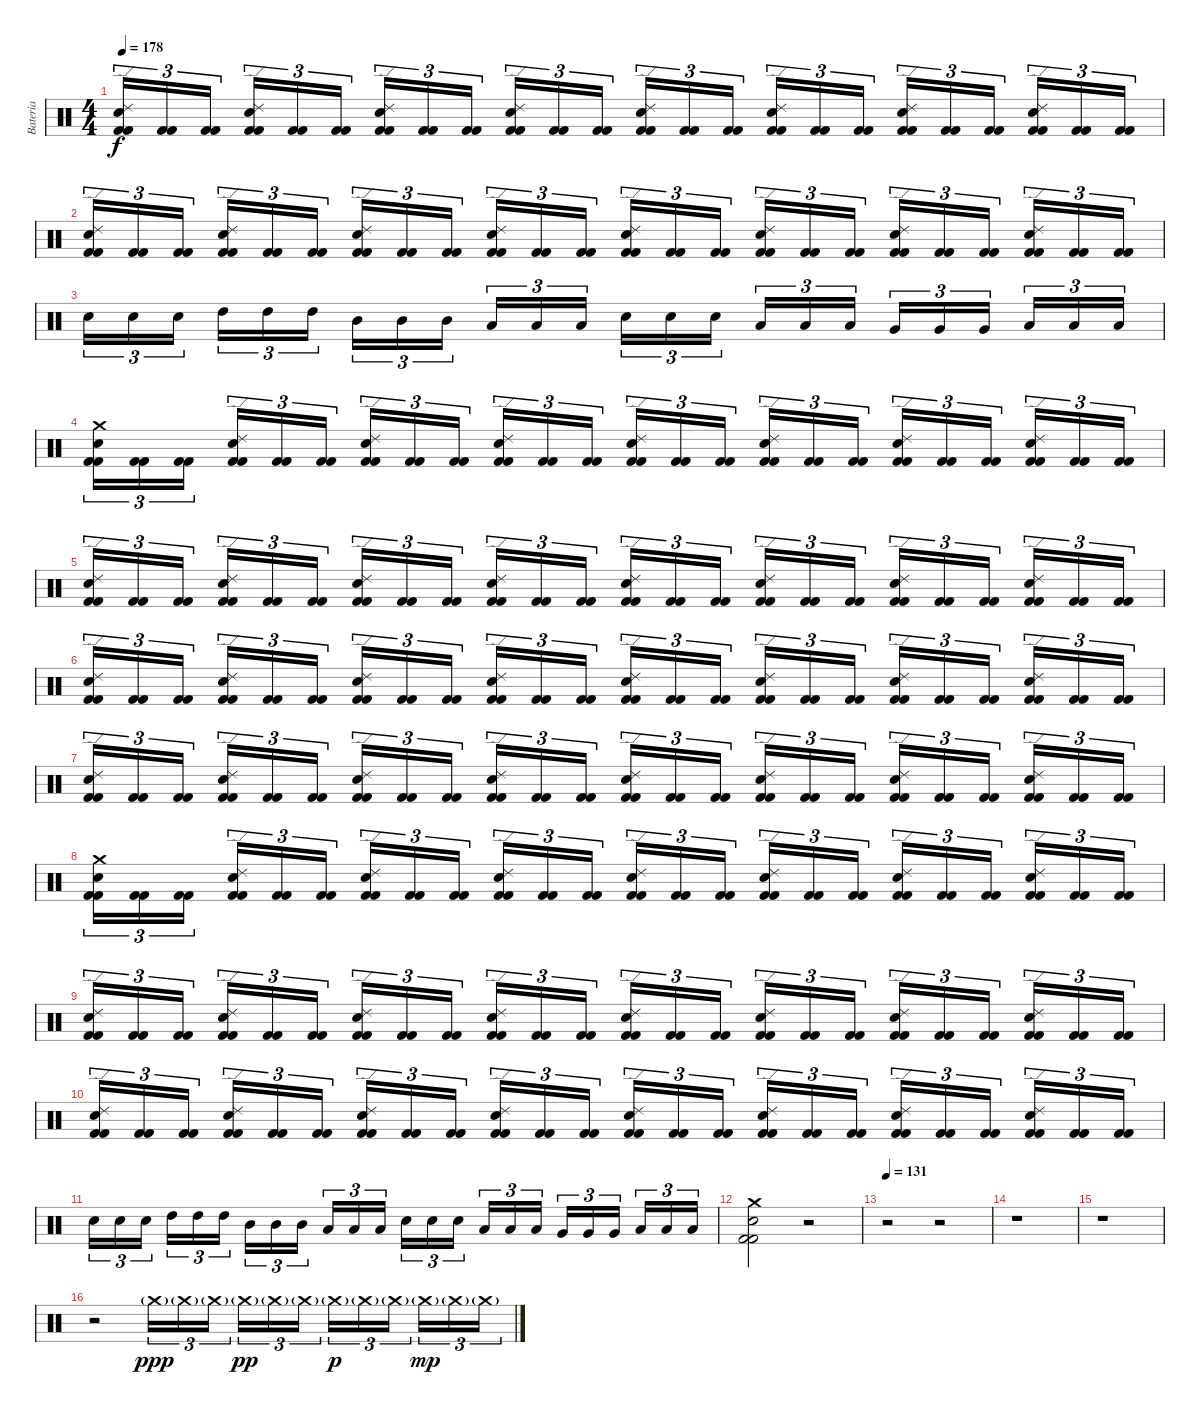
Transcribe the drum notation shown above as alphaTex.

\track ("Bateria" "Bateria") {instrument percussion}
\staff {score}
\articulation defaults
\ts (4 4)
\tempo 178
\clef neutral
\ks c
("Kick (hit) 2" "Kick (hit) 2" "Snare (hit) 2" "Ride (edge) 2").16{tu (3 2) dy f} ("Kick (hit) 2" "Kick (hit) 2").16{tu (3 2)} ("Kick (hit) 2" "Kick (hit) 2").16{tu (3 2)} ("Kick (hit) 2" "Kick (hit) 2" "Snare (hit) 2" "Ride (edge) 2").16{tu (3 2)} ("Kick (hit) 2" "Kick (hit) 2").16{tu (3 2)} ("Kick (hit) 2" "Kick (hit) 2").16{tu (3 2)} ("Kick (hit) 2" "Kick (hit) 2" "Snare (hit) 2" "Ride (edge) 2").16{tu (3 2)} ("Kick (hit) 2" "Kick (hit) 2").16{tu (3 2)} ("Kick (hit) 2" "Kick (hit) 2").16{tu (3 2)} ("Kick (hit) 2" "Kick (hit) 2" "Snare (hit) 2" "Ride (edge) 2").16{tu (3 2)} ("Kick (hit) 2" "Kick (hit) 2").16{tu (3 2)} ("Kick (hit) 2" "Kick (hit) 2").16{tu (3 2)} ("Kick (hit) 2" "Kick (hit) 2" "Snare (hit) 2" "Ride (edge) 2").16{tu (3 2)} ("Kick (hit) 2" "Kick (hit) 2").16{tu (3 2)} ("Kick (hit) 2" "Kick (hit) 2").16{tu (3 2)} ("Kick (hit) 2" "Kick (hit) 2" "Snare (hit) 2" "Ride (edge) 2").16{tu (3 2)} ("Kick (hit) 2" "Kick (hit) 2").16{tu (3 2)} ("Kick (hit) 2" "Kick (hit) 2").16{tu (3 2)} ("Kick (hit) 2" "Kick (hit) 2" "Snare (hit) 2" "Ride (edge) 2").16{tu (3 2)} ("Kick (hit) 2" "Kick (hit) 2").16{tu (3 2)} ("Kick (hit) 2" "Kick (hit) 2").16{tu (3 2)} ("Kick (hit) 2" "Kick (hit) 2" "Snare (hit) 2" "Ride (edge) 2").16{tu (3 2)} ("Kick (hit) 2" "Kick (hit) 2").16{tu (3 2)} ("Kick (hit) 2" "Kick (hit) 2").16{tu (3 2)} |
("Kick (hit) 2" "Kick (hit) 2" "Snare (hit) 2" "Ride (edge) 2").16{tu (3 2)} ("Kick (hit) 2" "Kick (hit) 2").16{tu (3 2)} ("Kick (hit) 2" "Kick (hit) 2").16{tu (3 2)} ("Kick (hit) 2" "Kick (hit) 2" "Snare (hit) 2" "Ride (edge) 2").16{tu (3 2)} ("Kick (hit) 2" "Kick (hit) 2").16{tu (3 2)} ("Kick (hit) 2" "Kick (hit) 2").16{tu (3 2)} ("Kick (hit) 2" "Kick (hit) 2" "Snare (hit) 2" "Ride (edge) 2").16{tu (3 2)} ("Kick (hit) 2" "Kick (hit) 2").16{tu (3 2)} ("Kick (hit) 2" "Kick (hit) 2").16{tu (3 2)} ("Kick (hit) 2" "Kick (hit) 2" "Snare (hit) 2" "Ride (edge) 2").16{tu (3 2)} ("Kick (hit) 2" "Kick (hit) 2").16{tu (3 2)} ("Kick (hit) 2" "Kick (hit) 2").16{tu (3 2)} ("Kick (hit) 2" "Kick (hit) 2" "Snare (hit) 2" "Ride (edge) 2").16{tu (3 2)} ("Kick (hit) 2" "Kick (hit) 2").16{tu (3 2)} ("Kick (hit) 2" "Kick (hit) 2").16{tu (3 2)} ("Kick (hit) 2" "Kick (hit) 2" "Snare (hit) 2" "Ride (edge) 2").16{tu (3 2)} ("Kick (hit) 2" "Kick (hit) 2").16{tu (3 2)} ("Kick (hit) 2" "Kick (hit) 2").16{tu (3 2)} ("Kick (hit) 2" "Kick (hit) 2" "Snare (hit) 2" "Ride (edge) 2").16{tu (3 2)} ("Kick (hit) 2" "Kick (hit) 2").16{tu (3 2)} ("Kick (hit) 2" "Kick (hit) 2").16{tu (3 2)} ("Kick (hit) 2" "Kick (hit) 2" "Snare (hit) 2" "Ride (edge) 2").16{tu (3 2)} ("Kick (hit) 2" "Kick (hit) 2").16{tu (3 2)} ("Kick (hit) 2" "Kick (hit) 2").16{tu (3 2)} |
"Snare (hit) 2".16{tu (3 2)} "Snare (hit) 2".16{tu (3 2)} "Snare (hit) 2".16{tu (3 2)} "High Tom (hit)".16{tu (3 2)} "High Tom (hit)".16{tu (3 2)} "High Tom (hit)".16{tu (3 2)} "Mid Tom (hit)".16{tu (3 2)} "Mid Tom (hit)".16{tu (3 2)} "Mid Tom (hit)".16{tu (3 2)} "Low Tom (hit)".16{tu (3 2)} "Low Tom (hit)".16{tu (3 2)} "Low Tom (hit)".16{tu (3 2)} "Snare (hit) 2".16{tu (3 2)} "Snare (hit) 2".16{tu (3 2)} "Snare (hit) 2".16{tu (3 2)} "Low Tom (hit)".16{tu (3 2)} "Low Tom (hit)".16{tu (3 2)} "Low Tom (hit)".16{tu (3 2)} "Very Low Tom (hit)".16{tu (3 2)} "Very Low Tom (hit)".16{tu (3 2)} "Very Low Tom (hit)".16{tu (3 2)} "Low Floor Tom (hit)".16{tu (3 2)} "Low Floor Tom (hit)".16{tu (3 2)} "Low Floor Tom (hit)".16{tu (3 2)} |
("Kick (hit) 2" "Kick (hit) 2" "Snare (hit) 2" "Crash medium (hit)").16{tu (3 2)} ("Kick (hit) 2" "Kick (hit) 2").16{tu (3 2)} ("Kick (hit) 2" "Kick (hit) 2").16{tu (3 2)} ("Kick (hit) 2" "Kick (hit) 2" "Snare (hit) 2" "Ride (edge) 2").16{tu (3 2)} ("Kick (hit) 2" "Kick (hit) 2").16{tu (3 2)} ("Kick (hit) 2" "Kick (hit) 2").16{tu (3 2)} ("Kick (hit) 2" "Kick (hit) 2" "Snare (hit) 2" "Ride (edge) 2").16{tu (3 2)} ("Kick (hit) 2" "Kick (hit) 2").16{tu (3 2)} ("Kick (hit) 2" "Kick (hit) 2").16{tu (3 2)} ("Kick (hit) 2" "Kick (hit) 2" "Snare (hit) 2" "Ride (edge) 2").16{tu (3 2)} ("Kick (hit) 2" "Kick (hit) 2").16{tu (3 2)} ("Kick (hit) 2" "Kick (hit) 2").16{tu (3 2)} ("Kick (hit) 2" "Kick (hit) 2" "Snare (hit) 2" "Ride (edge) 2").16{tu (3 2)} ("Kick (hit) 2" "Kick (hit) 2").16{tu (3 2)} ("Kick (hit) 2" "Kick (hit) 2").16{tu (3 2)} ("Kick (hit) 2" "Kick (hit) 2" "Snare (hit) 2" "Ride (edge) 2").16{tu (3 2)} ("Kick (hit) 2" "Kick (hit) 2").16{tu (3 2)} ("Kick (hit) 2" "Kick (hit) 2").16{tu (3 2)} ("Kick (hit) 2" "Kick (hit) 2" "Snare (hit) 2" "Ride (edge) 2").16{tu (3 2)} ("Kick (hit) 2" "Kick (hit) 2").16{tu (3 2)} ("Kick (hit) 2" "Kick (hit) 2").16{tu (3 2)} ("Kick (hit) 2" "Kick (hit) 2" "Snare (hit) 2" "Ride (edge) 2").16{tu (3 2)} ("Kick (hit) 2" "Kick (hit) 2").16{tu (3 2)} ("Kick (hit) 2" "Kick (hit) 2").16{tu (3 2)} |
("Kick (hit) 2" "Kick (hit) 2" "Snare (hit) 2" "Ride (edge) 2").16{tu (3 2)} ("Kick (hit) 2" "Kick (hit) 2").16{tu (3 2)} ("Kick (hit) 2" "Kick (hit) 2").16{tu (3 2)} ("Kick (hit) 2" "Kick (hit) 2" "Snare (hit) 2" "Ride (edge) 2").16{tu (3 2)} ("Kick (hit) 2" "Kick (hit) 2").16{tu (3 2)} ("Kick (hit) 2" "Kick (hit) 2").16{tu (3 2)} ("Kick (hit) 2" "Kick (hit) 2" "Snare (hit) 2" "Ride (edge) 2").16{tu (3 2)} ("Kick (hit) 2" "Kick (hit) 2").16{tu (3 2)} ("Kick (hit) 2" "Kick (hit) 2").16{tu (3 2)} ("Kick (hit) 2" "Kick (hit) 2" "Snare (hit) 2" "Ride (edge) 2").16{tu (3 2)} ("Kick (hit) 2" "Kick (hit) 2").16{tu (3 2)} ("Kick (hit) 2" "Kick (hit) 2").16{tu (3 2)} ("Kick (hit) 2" "Kick (hit) 2" "Snare (hit) 2" "Ride (edge) 2").16{tu (3 2)} ("Kick (hit) 2" "Kick (hit) 2").16{tu (3 2)} ("Kick (hit) 2" "Kick (hit) 2").16{tu (3 2)} ("Kick (hit) 2" "Kick (hit) 2" "Snare (hit) 2" "Ride (edge) 2").16{tu (3 2)} ("Kick (hit) 2" "Kick (hit) 2").16{tu (3 2)} ("Kick (hit) 2" "Kick (hit) 2").16{tu (3 2)} ("Kick (hit) 2" "Kick (hit) 2" "Snare (hit) 2" "Ride (edge) 2").16{tu (3 2)} ("Kick (hit) 2" "Kick (hit) 2").16{tu (3 2)} ("Kick (hit) 2" "Kick (hit) 2").16{tu (3 2)} ("Kick (hit) 2" "Kick (hit) 2" "Snare (hit) 2" "Ride (edge) 2").16{tu (3 2)} ("Kick (hit) 2" "Kick (hit) 2").16{tu (3 2)} ("Kick (hit) 2" "Kick (hit) 2").16{tu (3 2)} |
("Kick (hit) 2" "Kick (hit) 2" "Snare (hit) 2" "Ride (edge) 2").16{tu (3 2)} ("Kick (hit) 2" "Kick (hit) 2").16{tu (3 2)} ("Kick (hit) 2" "Kick (hit) 2").16{tu (3 2)} ("Kick (hit) 2" "Kick (hit) 2" "Snare (hit) 2" "Ride (edge) 2").16{tu (3 2)} ("Kick (hit) 2" "Kick (hit) 2").16{tu (3 2)} ("Kick (hit) 2" "Kick (hit) 2").16{tu (3 2)} ("Kick (hit) 2" "Kick (hit) 2" "Snare (hit) 2" "Ride (edge) 2").16{tu (3 2)} ("Kick (hit) 2" "Kick (hit) 2").16{tu (3 2)} ("Kick (hit) 2" "Kick (hit) 2").16{tu (3 2)} ("Kick (hit) 2" "Kick (hit) 2" "Snare (hit) 2" "Ride (edge) 2").16{tu (3 2)} ("Kick (hit) 2" "Kick (hit) 2").16{tu (3 2)} ("Kick (hit) 2" "Kick (hit) 2").16{tu (3 2)} ("Kick (hit) 2" "Kick (hit) 2" "Snare (hit) 2" "Ride (edge) 2").16{tu (3 2)} ("Kick (hit) 2" "Kick (hit) 2").16{tu (3 2)} ("Kick (hit) 2" "Kick (hit) 2").16{tu (3 2)} ("Kick (hit) 2" "Kick (hit) 2" "Snare (hit) 2" "Ride (edge) 2").16{tu (3 2)} ("Kick (hit) 2" "Kick (hit) 2").16{tu (3 2)} ("Kick (hit) 2" "Kick (hit) 2").16{tu (3 2)} ("Kick (hit) 2" "Kick (hit) 2" "Snare (hit) 2" "Ride (edge) 2").16{tu (3 2)} ("Kick (hit) 2" "Kick (hit) 2").16{tu (3 2)} ("Kick (hit) 2" "Kick (hit) 2").16{tu (3 2)} ("Kick (hit) 2" "Kick (hit) 2" "Snare (hit) 2" "Ride (edge) 2").16{tu (3 2)} ("Kick (hit) 2" "Kick (hit) 2").16{tu (3 2)} ("Kick (hit) 2" "Kick (hit) 2").16{tu (3 2)} |
("Kick (hit) 2" "Kick (hit) 2" "Snare (hit) 2" "Ride (edge) 2").16{tu (3 2)} ("Kick (hit) 2" "Kick (hit) 2").16{tu (3 2)} ("Kick (hit) 2" "Kick (hit) 2").16{tu (3 2)} ("Kick (hit) 2" "Kick (hit) 2" "Snare (hit) 2" "Ride (edge) 2").16{tu (3 2)} ("Kick (hit) 2" "Kick (hit) 2").16{tu (3 2)} ("Kick (hit) 2" "Kick (hit) 2").16{tu (3 2)} ("Kick (hit) 2" "Kick (hit) 2" "Snare (hit) 2" "Ride (edge) 2").16{tu (3 2)} ("Kick (hit) 2" "Kick (hit) 2").16{tu (3 2)} ("Kick (hit) 2" "Kick (hit) 2").16{tu (3 2)} ("Kick (hit) 2" "Kick (hit) 2" "Snare (hit) 2" "Ride (edge) 2").16{tu (3 2)} ("Kick (hit) 2" "Kick (hit) 2").16{tu (3 2)} ("Kick (hit) 2" "Kick (hit) 2").16{tu (3 2)} ("Kick (hit) 2" "Kick (hit) 2" "Snare (hit) 2" "Ride (edge) 2").16{tu (3 2)} ("Kick (hit) 2" "Kick (hit) 2").16{tu (3 2)} ("Kick (hit) 2" "Kick (hit) 2").16{tu (3 2)} ("Kick (hit) 2" "Kick (hit) 2" "Snare (hit) 2" "Ride (edge) 2").16{tu (3 2)} ("Kick (hit) 2" "Kick (hit) 2").16{tu (3 2)} ("Kick (hit) 2" "Kick (hit) 2").16{tu (3 2)} ("Kick (hit) 2" "Kick (hit) 2" "Snare (hit) 2" "Ride (edge) 2").16{tu (3 2)} ("Kick (hit) 2" "Kick (hit) 2").16{tu (3 2)} ("Kick (hit) 2" "Kick (hit) 2").16{tu (3 2)} ("Kick (hit) 2" "Kick (hit) 2" "Snare (hit) 2" "Ride (edge) 2").16{tu (3 2)} ("Kick (hit) 2" "Kick (hit) 2").16{tu (3 2)} ("Kick (hit) 2" "Kick (hit) 2").16{tu (3 2)} |
("Kick (hit) 2" "Kick (hit) 2" "Snare (hit) 2" "Crash medium (hit)").16{tu (3 2)} ("Kick (hit) 2" "Kick (hit) 2").16{tu (3 2)} ("Kick (hit) 2" "Kick (hit) 2").16{tu (3 2)} ("Kick (hit) 2" "Kick (hit) 2" "Snare (hit) 2" "Ride (edge) 2").16{tu (3 2)} ("Kick (hit) 2" "Kick (hit) 2").16{tu (3 2)} ("Kick (hit) 2" "Kick (hit) 2").16{tu (3 2)} ("Kick (hit) 2" "Kick (hit) 2" "Snare (hit) 2" "Ride (edge) 2").16{tu (3 2)} ("Kick (hit) 2" "Kick (hit) 2").16{tu (3 2)} ("Kick (hit) 2" "Kick (hit) 2").16{tu (3 2)} ("Kick (hit) 2" "Kick (hit) 2" "Snare (hit) 2" "Ride (edge) 2").16{tu (3 2)} ("Kick (hit) 2" "Kick (hit) 2").16{tu (3 2)} ("Kick (hit) 2" "Kick (hit) 2").16{tu (3 2)} ("Kick (hit) 2" "Kick (hit) 2" "Snare (hit) 2" "Ride (edge) 2").16{tu (3 2)} ("Kick (hit) 2" "Kick (hit) 2").16{tu (3 2)} ("Kick (hit) 2" "Kick (hit) 2").16{tu (3 2)} ("Kick (hit) 2" "Kick (hit) 2" "Snare (hit) 2" "Ride (edge) 2").16{tu (3 2)} ("Kick (hit) 2" "Kick (hit) 2").16{tu (3 2)} ("Kick (hit) 2" "Kick (hit) 2").16{tu (3 2)} ("Kick (hit) 2" "Kick (hit) 2" "Snare (hit) 2" "Ride (edge) 2").16{tu (3 2)} ("Kick (hit) 2" "Kick (hit) 2").16{tu (3 2)} ("Kick (hit) 2" "Kick (hit) 2").16{tu (3 2)} ("Kick (hit) 2" "Kick (hit) 2" "Snare (hit) 2" "Ride (edge) 2").16{tu (3 2)} ("Kick (hit) 2" "Kick (hit) 2").16{tu (3 2)} ("Kick (hit) 2" "Kick (hit) 2").16{tu (3 2)} |
("Kick (hit) 2" "Kick (hit) 2" "Snare (hit) 2" "Ride (edge) 2").16{tu (3 2)} ("Kick (hit) 2" "Kick (hit) 2").16{tu (3 2)} ("Kick (hit) 2" "Kick (hit) 2").16{tu (3 2)} ("Kick (hit) 2" "Kick (hit) 2" "Snare (hit) 2" "Ride (edge) 2").16{tu (3 2)} ("Kick (hit) 2" "Kick (hit) 2").16{tu (3 2)} ("Kick (hit) 2" "Kick (hit) 2").16{tu (3 2)} ("Kick (hit) 2" "Kick (hit) 2" "Snare (hit) 2" "Ride (edge) 2").16{tu (3 2)} ("Kick (hit) 2" "Kick (hit) 2").16{tu (3 2)} ("Kick (hit) 2" "Kick (hit) 2").16{tu (3 2)} ("Kick (hit) 2" "Kick (hit) 2" "Snare (hit) 2" "Ride (edge) 2").16{tu (3 2)} ("Kick (hit) 2" "Kick (hit) 2").16{tu (3 2)} ("Kick (hit) 2" "Kick (hit) 2").16{tu (3 2)} ("Kick (hit) 2" "Kick (hit) 2" "Snare (hit) 2" "Ride (edge) 2").16{tu (3 2)} ("Kick (hit) 2" "Kick (hit) 2").16{tu (3 2)} ("Kick (hit) 2" "Kick (hit) 2").16{tu (3 2)} ("Kick (hit) 2" "Kick (hit) 2" "Snare (hit) 2" "Ride (edge) 2").16{tu (3 2)} ("Kick (hit) 2" "Kick (hit) 2").16{tu (3 2)} ("Kick (hit) 2" "Kick (hit) 2").16{tu (3 2)} ("Kick (hit) 2" "Kick (hit) 2" "Snare (hit) 2" "Ride (edge) 2").16{tu (3 2)} ("Kick (hit) 2" "Kick (hit) 2").16{tu (3 2)} ("Kick (hit) 2" "Kick (hit) 2").16{tu (3 2)} ("Kick (hit) 2" "Kick (hit) 2" "Snare (hit) 2" "Ride (edge) 2").16{tu (3 2)} ("Kick (hit) 2" "Kick (hit) 2").16{tu (3 2)} ("Kick (hit) 2" "Kick (hit) 2").16{tu (3 2)} |
("Kick (hit) 2" "Kick (hit) 2" "Snare (hit) 2" "Ride (edge) 2").16{tu (3 2)} ("Kick (hit) 2" "Kick (hit) 2").16{tu (3 2)} ("Kick (hit) 2" "Kick (hit) 2").16{tu (3 2)} ("Kick (hit) 2" "Kick (hit) 2" "Snare (hit) 2" "Ride (edge) 2").16{tu (3 2)} ("Kick (hit) 2" "Kick (hit) 2").16{tu (3 2)} ("Kick (hit) 2" "Kick (hit) 2").16{tu (3 2)} ("Kick (hit) 2" "Kick (hit) 2" "Snare (hit) 2" "Ride (edge) 2").16{tu (3 2)} ("Kick (hit) 2" "Kick (hit) 2").16{tu (3 2)} ("Kick (hit) 2" "Kick (hit) 2").16{tu (3 2)} ("Kick (hit) 2" "Kick (hit) 2" "Snare (hit) 2" "Ride (edge) 2").16{tu (3 2)} ("Kick (hit) 2" "Kick (hit) 2").16{tu (3 2)} ("Kick (hit) 2" "Kick (hit) 2").16{tu (3 2)} ("Kick (hit) 2" "Kick (hit) 2" "Snare (hit) 2" "Ride (edge) 2").16{tu (3 2)} ("Kick (hit) 2" "Kick (hit) 2").16{tu (3 2)} ("Kick (hit) 2" "Kick (hit) 2").16{tu (3 2)} ("Kick (hit) 2" "Kick (hit) 2" "Snare (hit) 2" "Ride (edge) 2").16{tu (3 2)} ("Kick (hit) 2" "Kick (hit) 2").16{tu (3 2)} ("Kick (hit) 2" "Kick (hit) 2").16{tu (3 2)} ("Kick (hit) 2" "Kick (hit) 2" "Snare (hit) 2" "Ride (edge) 2").16{tu (3 2)} ("Kick (hit) 2" "Kick (hit) 2").16{tu (3 2)} ("Kick (hit) 2" "Kick (hit) 2").16{tu (3 2)} ("Kick (hit) 2" "Kick (hit) 2" "Snare (hit) 2" "Ride (edge) 2").16{tu (3 2)} ("Kick (hit) 2" "Kick (hit) 2").16{tu (3 2)} ("Kick (hit) 2" "Kick (hit) 2").16{tu (3 2)} |
"Snare (hit) 2".16{tu (3 2)} "Snare (hit) 2".16{tu (3 2)} "Snare (hit) 2".16{tu (3 2)} "High Tom (hit)".16{tu (3 2)} "High Tom (hit)".16{tu (3 2)} "High Tom (hit)".16{tu (3 2)} "Mid Tom (hit)".16{tu (3 2)} "Mid Tom (hit)".16{tu (3 2)} "Mid Tom (hit)".16{tu (3 2)} "Low Tom (hit)".16{tu (3 2)} "Low Tom (hit)".16{tu (3 2)} "Low Tom (hit)".16{tu (3 2)} "Snare (hit) 2".16{tu (3 2)} "Snare (hit) 2".16{tu (3 2)} "Snare (hit) 2".16{tu (3 2)} "Low Tom (hit)".16{tu (3 2)} "Low Tom (hit)".16{tu (3 2)} "Low Tom (hit)".16{tu (3 2)} "Very Low Tom (hit)".16{tu (3 2)} "Very Low Tom (hit)".16{tu (3 2)} "Very Low Tom (hit)".16{tu (3 2)} "Low Floor Tom (hit)".16{tu (3 2)} "Low Floor Tom (hit)".16{tu (3 2)} "Low Floor Tom (hit)".16{tu (3 2)} |
("Kick (hit) 2" "Kick (hit) 2" "Snare (hit) 2" "Crash medium (hit)").2 r.2 |
\tempo 131
r.2 r.2 |
r.1 |
r.1 |
r.2 "Crash medium (hit)"{g}.16{tu (3 2) dy ppp} "Crash medium (hit)"{g}.16{tu (3 2)} "Crash medium (hit)"{g}.16{tu (3 2)} "Crash medium (hit)"{g}.16{tu (3 2) dy pp} "Crash medium (hit)"{g}.16{tu (3 2)} "Crash medium (hit)"{g}.16{tu (3 2)} "Crash medium (hit)"{g}.16{tu (3 2) dy p} "Crash medium (hit)"{g}.16{tu (3 2)} "Crash medium (hit)"{g}.16{tu (3 2)} "Crash medium (hit)"{g}.16{tu (3 2) dy mp} "Crash medium (hit)"{g}.16{tu (3 2)} "Crash medium (hit)"{g}.16{tu (3 2)}
